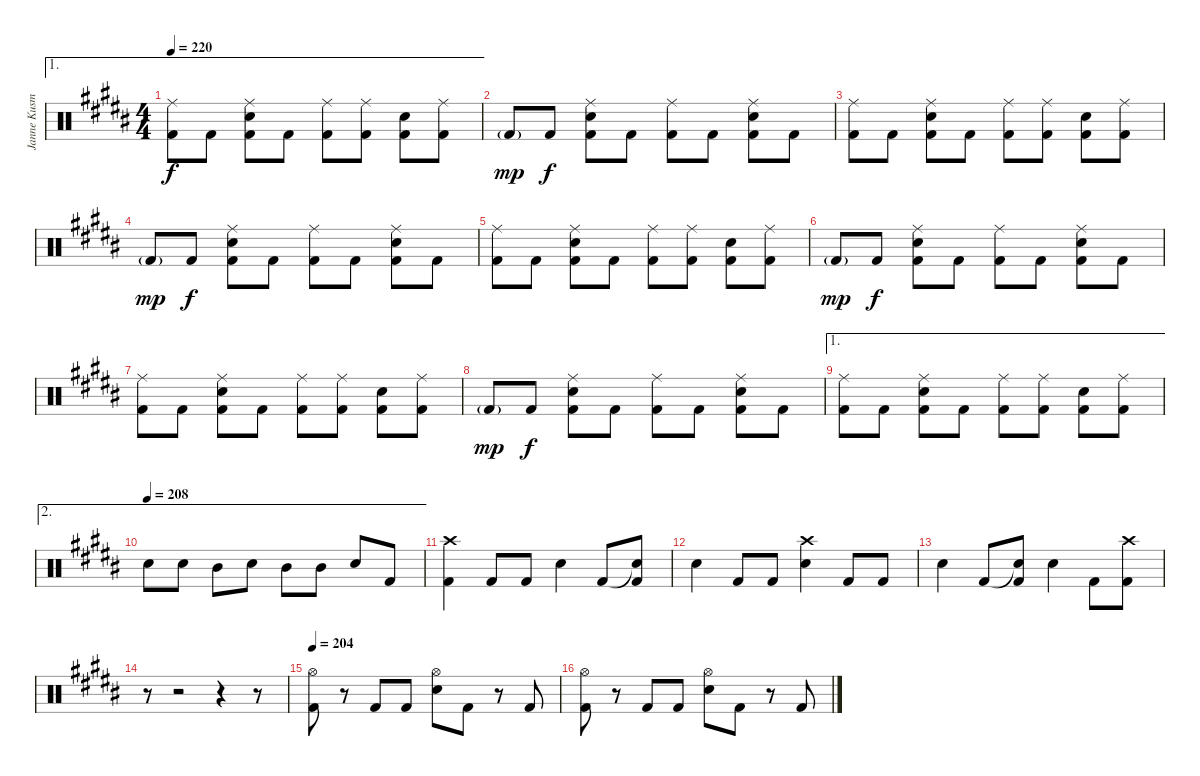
\track ("Janne Kusmin" "Janne Kusm") {instrument percussion}
\staff {score}
\articulation defaults
\ae 1
\ts (4 4)
\tempo 220
\clef neutral
\ks b
("Ride (middle)" "Kick (hit) 2").8{dy f} "Kick (hit) 2".8 ("Ride (middle)" "Electric Snare (hit)" "Kick (hit) 2").8 "Kick (hit) 2".8 ("Ride (middle)" "Kick (hit) 2").8 ("Ride (middle)" "Kick (hit) 2").8 ("Electric Snare (hit)" "Kick (hit) 2").8 ("Ride (middle)" "Kick (hit) 2").8 |
\ks g#minor "Kick (hit) 2"{g}.8{dy mp} "Kick (hit) 2".8{dy f}
("Ride (middle)" "Electric Snare (hit)" "Kick (hit) 2").8 "Kick (hit) 2".8 ("Ride (middle)" "Kick (hit) 2").8 "Kick (hit) 2".8 ("Ride (middle)" "Electric Snare (hit)" "Kick (hit) 2").8 "Kick (hit) 2".8 |
("Ride (middle)" "Kick (hit) 2").8 "Kick (hit) 2".8 ("Ride (middle)" "Electric Snare (hit)" "Kick (hit) 2").8 "Kick (hit) 2".8 ("Ride (middle)" "Kick (hit) 2").8 ("Ride (middle)" "Kick (hit) 2").8 ("Electric Snare (hit)" "Kick (hit) 2").8 ("Ride (middle)" "Kick (hit) 2").8 |
"Kick (hit) 2"{g}.8{dy mp} "Kick (hit) 2".8{dy f} ("Ride (middle)" "Electric Snare (hit)" "Kick (hit) 2").8 "Kick (hit) 2".8 ("Ride (middle)" "Kick (hit) 2").8 "Kick (hit) 2".8 ("Ride (middle)" "Electric Snare (hit)" "Kick (hit) 2").8 "Kick (hit) 2".8 |
("Ride (middle)" "Kick (hit) 2").8 "Kick (hit) 2".8 ("Ride (middle)" "Electric Snare (hit)" "Kick (hit) 2").8 "Kick (hit) 2".8 ("Ride (middle)" "Kick (hit) 2").8 ("Ride (middle)" "Kick (hit) 2").8 ("Electric Snare (hit)" "Kick (hit) 2").8 ("Ride (middle)" "Kick (hit) 2").8 |
\ks b "Kick (hit) 2"{g}.8{dy mp} "Kick (hit) 2".8{dy f}
("Ride (middle)" "Electric Snare (hit)" "Kick (hit) 2").8 "Kick (hit) 2".8 ("Ride (middle)" "Kick (hit) 2").8 "Kick (hit) 2".8 ("Ride (middle)" "Electric Snare (hit)" "Kick (hit) 2").8 "Kick (hit) 2".8 |
\ks g#minor
("Ride (middle)" "Kick (hit) 2").8 "Kick (hit) 2".8 ("Ride (middle)" "Electric Snare (hit)" "Kick (hit) 2").8 "Kick (hit) 2".8 ("Ride (middle)" "Kick (hit) 2").8 ("Ride (middle)" "Kick (hit) 2").8 ("Electric Snare (hit)" "Kick (hit) 2").8 ("Ride (middle)" "Kick (hit) 2").8 |
"Kick (hit) 2"{g}.8{dy mp} "Kick (hit) 2".8{dy f} ("Ride (middle)" "Electric Snare (hit)" "Kick (hit) 2").8 "Kick (hit) 2".8 ("Ride (middle)" "Kick (hit) 2").8 "Kick (hit) 2".8 ("Ride (middle)" "Electric Snare (hit)" "Kick (hit) 2").8 "Kick (hit) 2".8 |
\ae 1
\ks b
("Ride (middle)" "Kick (hit) 2").8 "Kick (hit) 2".8 ("Ride (middle)" "Electric Snare (hit)" "Kick (hit) 2").8 "Kick (hit) 2".8 ("Ride (middle)" "Kick (hit) 2").8 ("Ride (middle)" "Kick (hit) 2").8 ("Electric Snare (hit)" "Kick (hit) 2").8 ("Ride (middle)" "Kick (hit) 2").8 |
\ae 2
\tempo 208
\ks g#minor "Electric Snare (hit)".8 "Electric Snare (hit)".8 "Mid Tom (hit)".8 "Electric Snare (hit)".8 "Mid Tom (hit)".8 "Mid Tom (hit)".8 "Electric Snare (hit)".8 "Kick (hit) 2".8
|
("Crash high (hit)" "Kick (hit) 2").4 "Kick (hit) 2".8 "Kick (hit) 2".8 "Electric Snare (hit)".4 "Kick (hit) 2".8 ("Snare (hit)"{t} "Kick (hit) 2").8 |
"Electric Snare (hit)".4 "Kick (hit) 2".8 "Kick (hit) 2".8 ("Crash high (hit)" "Electric Snare (hit)").4 "Kick (hit) 2".8 "Kick (hit) 2".8 |
\ks b "Electric Snare (hit)".4 "Kick (hit) 2".8
("Snare (hit)"{t} "Kick (hit) 2").8 "Electric Snare (hit)".4 "Kick (hit) 2".8 ("Crash high (hit)" "Kick (hit) 2").8 |
\ks g#minor
r.8 r.2 r.4 r.8 |
\tempo 204
("Hi-Hat (open)" "Kick (hit) 2").8 r.8 "Kick (hit) 2".8 "Kick (hit) 2".8 ("Electric Snare (hit)" "Hi-Hat (open)").8 "Kick (hit) 2".8 r.8 "Kick (hit) 2".8 |
("Kick (hit) 2" "Hi-Hat (open)").8 r.8 "Kick (hit) 2".8 "Kick (hit) 2".8 ("Electric Snare (hit)" "Hi-Hat (open)").8 "Kick (hit) 2".8 r.8 "Kick (hit) 2".8
